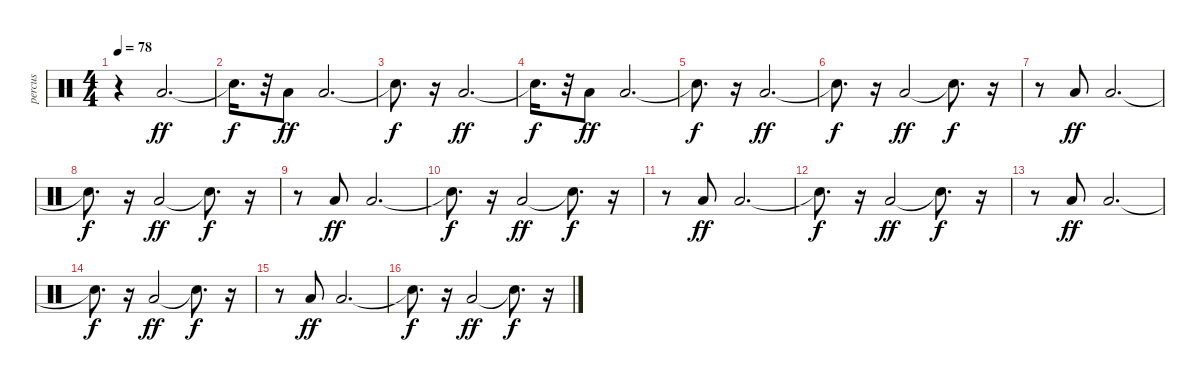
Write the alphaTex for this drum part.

\track ("percus" "percus") {instrument percussion}
\staff {score}
\articulation defaults
\ts (4 4)
\tempo 78
\clef neutral
\ks c
r.4{dy ff} "Low Floor Tom (hit)".2{d} |
"Snare (hit)"{t}.16{d dy f} r.32 "Low Floor Tom (hit)".8{dy ff} "Low Floor Tom (hit)".2{d} |
"Snare (hit)"{t}.8{d dy f} r.16 "Low Floor Tom (hit)".2{d dy ff} |
"Snare (hit)"{t}.16{d dy f} r.32 "Low Floor Tom (hit)".8{dy ff} "Low Floor Tom (hit)".2{d} |
"Snare (hit)"{t}.8{d dy f} r.16 "Low Floor Tom (hit)".2{d dy ff} |
"Snare (hit)"{t}.8{d dy f} r.16 "Low Floor Tom (hit)".2{dy ff} "Snare (hit)"{t}.8{d dy f} r.16 |
r.8 "Low Floor Tom (hit)".8{dy ff} "Low Floor Tom (hit)".2{d} |
"Snare (hit)"{t}.8{d dy f} r.16 "Low Floor Tom (hit)".2{dy ff} "Snare (hit)"{t}.8{d dy f} r.16 |
r.8 "Low Floor Tom (hit)".8{dy ff} "Low Floor Tom (hit)".2{d} |
"Snare (hit)"{t}.8{d dy f} r.16 "Low Floor Tom (hit)".2{dy ff} "Snare (hit)"{t}.8{d dy f} r.16 |
r.8 "Low Floor Tom (hit)".8{dy ff} "Low Floor Tom (hit)".2{d} |
"Snare (hit)"{t}.8{d dy f} r.16 "Low Floor Tom (hit)".2{dy ff} "Snare (hit)"{t}.8{d dy f} r.16 |
r.8 "Low Floor Tom (hit)".8{dy ff} "Low Floor Tom (hit)".2{d} |
"Snare (hit)"{t}.8{d dy f} r.16 "Low Floor Tom (hit)".2{dy ff} "Snare (hit)"{t}.8{d dy f} r.16 |
r.8 "Low Floor Tom (hit)".8{dy ff} "Low Floor Tom (hit)".2{d} |
"Snare (hit)"{t}.8{d dy f} r.16 "Low Floor Tom (hit)".2{dy ff} "Snare (hit)"{t}.8{d dy f} r.16
